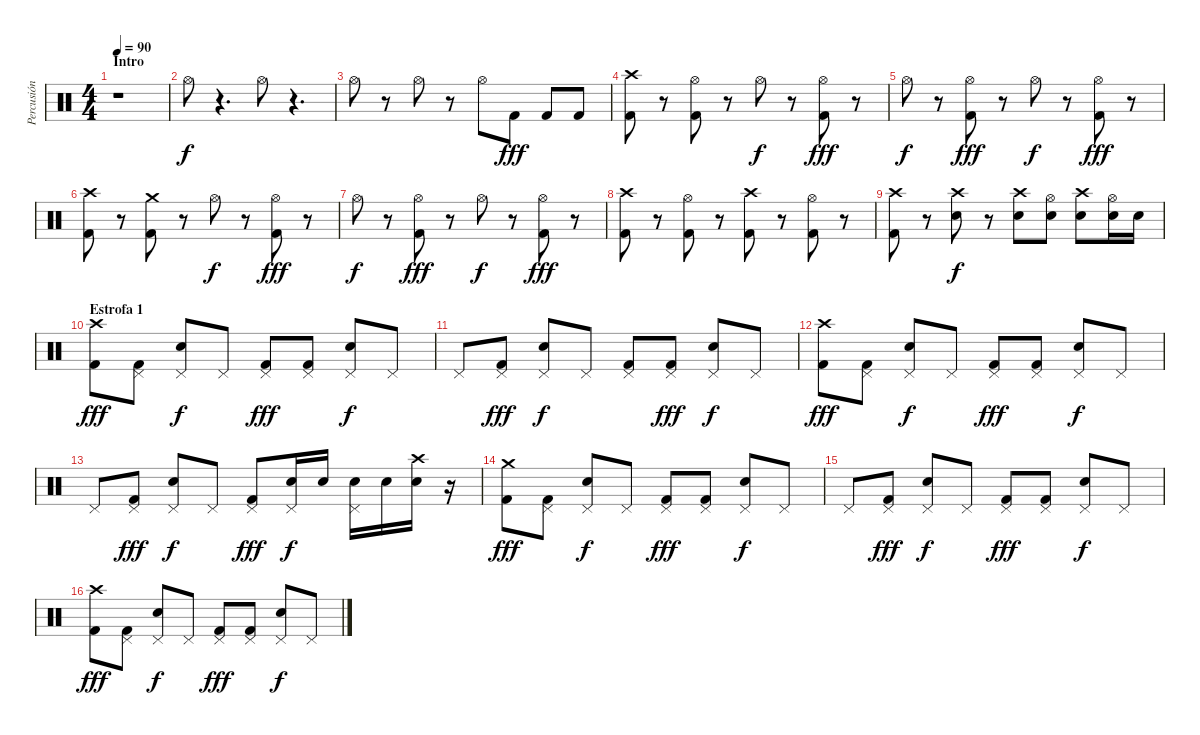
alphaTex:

\track ("Percusión" "Percusión") {instrument percussion}
\staff {score}
\articulation defaults
\ts (4 4)
\section ("" "Intro")
\tempo 90
\clef neutral
\ks c
r.1{dy f} |
"Hi-Hat (open)".8 r.4{d} "Hi-Hat (open)".8 r.4{d} |
"Hi-Hat (open)".8 r.8 "Hi-Hat (open)".8 r.8 "Hi-Hat (open)".8 "Kick (hit) 2".8{dy fff} "Kick (hit) 2".8 "Kick (hit) 2".8 |
("Crash high (hit)" "Kick (hit) 2").8{balance 4} r.8 ("Hi-Hat (open)" "Kick (hit) 2").8{balance 8} r.8 "Hi-Hat (open)".8{dy f} r.8 ("Hi-Hat (open)" "Kick (hit) 2").8{dy fff} r.8 |
"Hi-Hat (open)".8{dy f} r.8 ("Hi-Hat (open)" "Kick (hit) 2").8{dy fff} r.8 "Hi-Hat (open)".8{dy f} r.8 ("Hi-Hat (open)" "Kick (hit) 2").8{dy fff} r.8 |
("Crash high (hit)" "Kick (hit) 2").8{balance 12} r.8 ("Crash medium (hit)" "Kick (hit) 2").8{balance 4} r.8 "Hi-Hat (open)".8{dy f balance 8} r.8 ("Hi-Hat (open)" "Kick (hit) 2").8{dy fff} r.8 |
"Hi-Hat (open)".8{dy f} r.8 ("Hi-Hat (open)" "Kick (hit) 2").8{dy fff} r.8 "Hi-Hat (open)".8{dy f} r.8 ("Hi-Hat (open)" "Kick (hit) 2").8{dy fff} r.8 |
("Crash high (hit)" "Kick (hit) 2").8{balance 12} r.8 ("Hi-Hat (open)" "Kick (hit) 2").8{balance 8} r.8 ("Crash high (hit)" "Kick (hit) 2").8{balance 4} r.8 ("Hi-Hat (open)" "Kick (hit) 2").8{balance 8} r.8 |
("Crash high (hit)" "Kick (hit) 2").8{balance 12} r.8 ("Crash high (hit)" "Snare (hit) 2").8{dy f balance 4} r.8 ("Crash high (hit)" "Snare (hit) 2").8{balance 12} ("Hi-Hat (open)" "Snare (hit) 2").8{balance 8} ("Crash high (hit)" "Snare (hit) 2").8 ("Hi-Hat (open)" "Snare (hit) 2").16 "Snare (hit) 2".16 |
\section ("" "Estrofa 1")
("Crash high (hit)" "Kick (hit) 2").8{dy fff} ("Pedal Hi-Hat (hit)" "Kick (hit) 2").8 ("Pedal Hi-Hat (hit)" "Snare (hit) 2").8{dy f} "Pedal Hi-Hat (hit)".8 ("Pedal Hi-Hat (hit)" "Kick (hit) 2").8{dy fff} ("Pedal Hi-Hat (hit)" "Kick (hit) 2").8 ("Pedal Hi-Hat (hit)" "Snare (hit) 2").8{dy f} "Pedal Hi-Hat (hit)".8 |
"Pedal Hi-Hat (hit)".8 ("Pedal Hi-Hat (hit)" "Kick (hit) 2").8{dy fff} ("Pedal Hi-Hat (hit)" "Snare (hit) 2").8{dy f} "Pedal Hi-Hat (hit)".8 ("Pedal Hi-Hat (hit)" "Kick (hit) 2").8 ("Pedal Hi-Hat (hit)" "Kick (hit) 2").8{dy fff} ("Pedal Hi-Hat (hit)" "Snare (hit) 2").8{dy f} "Pedal Hi-Hat (hit)".8 |
("Crash high (hit)" "Kick (hit) 2").8{dy fff balance 4} ("Pedal Hi-Hat (hit)" "Kick (hit) 2").8{balance 8} ("Pedal Hi-Hat (hit)" "Snare (hit) 2").8{dy f} "Pedal Hi-Hat (hit)".8 ("Pedal Hi-Hat (hit)" "Kick (hit) 2").8{dy fff} ("Pedal Hi-Hat (hit)" "Kick (hit) 2").8 ("Pedal Hi-Hat (hit)" "Snare (hit) 2").8{dy f} "Pedal Hi-Hat (hit)".8 |
"Pedal Hi-Hat (hit)".8 ("Pedal Hi-Hat (hit)" "Kick (hit) 2").8{dy fff} ("Pedal Hi-Hat (hit)" "Snare (hit) 2").8{dy f} "Pedal Hi-Hat (hit)".8 ("Pedal Hi-Hat (hit)" "Kick (hit) 2").8{dy fff} ("Pedal Hi-Hat (hit)" "Snare (hit) 2").16{dy f} "Snare (hit) 2".16 ("Pedal Hi-Hat (hit)" "Snare (hit) 2").16 "Snare (hit) 2".16 ("Crash high (hit)" "Snare (hit) 2").16{balance 12} r.16 |
("Crash medium (hit)" "Kick (hit) 2").8{dy fff balance 4} ("Pedal Hi-Hat (hit)" "Kick (hit) 2").8{balance 8} ("Pedal Hi-Hat (hit)" "Snare (hit) 2").8{dy f} "Pedal Hi-Hat (hit)".8 ("Pedal Hi-Hat (hit)" "Kick (hit) 2").8{dy fff} ("Pedal Hi-Hat (hit)" "Kick (hit) 2").8 ("Pedal Hi-Hat (hit)" "Snare (hit) 2").8{dy f} "Pedal Hi-Hat (hit)".8 |
"Pedal Hi-Hat (hit)".8 ("Pedal Hi-Hat (hit)" "Kick (hit) 2").8{dy fff} ("Pedal Hi-Hat (hit)" "Snare (hit) 2").8{dy f} "Pedal Hi-Hat (hit)".8 ("Pedal Hi-Hat (hit)" "Kick (hit) 2").8{dy fff} ("Pedal Hi-Hat (hit)" "Kick (hit) 2").8 ("Pedal Hi-Hat (hit)" "Snare (hit) 2").8{dy f} "Pedal Hi-Hat (hit)".8 |
("Crash high (hit)" "Kick (hit) 2").8{dy fff balance 12} ("Pedal Hi-Hat (hit)" "Kick (hit) 2").8{balance 8} ("Pedal Hi-Hat (hit)" "Snare (hit) 2").8{dy f} "Pedal Hi-Hat (hit)".8 ("Pedal Hi-Hat (hit)" "Kick (hit) 2").8{dy fff} ("Pedal Hi-Hat (hit)" "Kick (hit) 2").8 ("Pedal Hi-Hat (hit)" "Snare (hit) 2").8{dy f} "Pedal Hi-Hat (hit)".8
